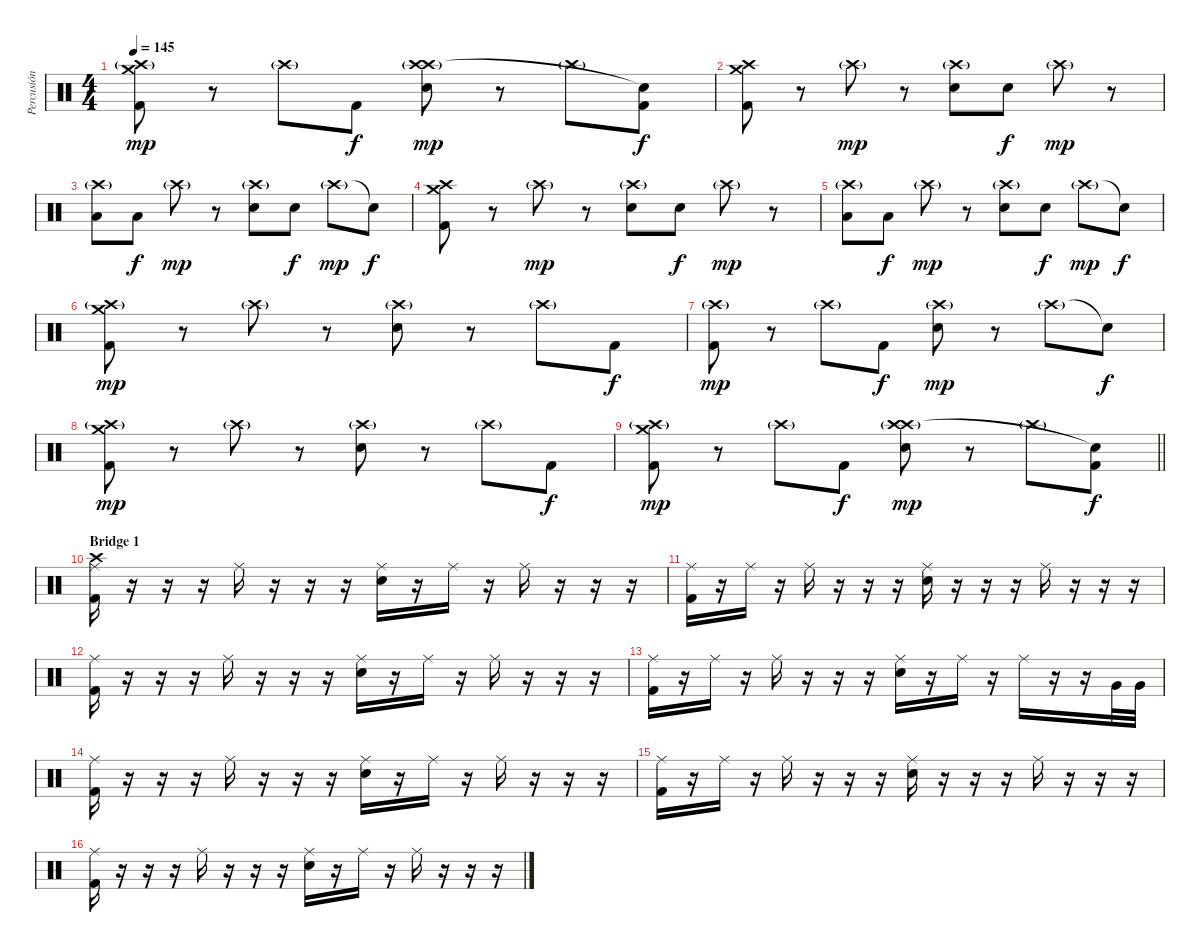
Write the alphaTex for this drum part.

\track ("Percusión" "Percusión") {instrument percussion}
\staff {score}
\articulation defaults
\ts (4 4)
\tempo 145
\clef neutral
\ks c
("Kick (hit) 2" "Crash high (hit)"{g} "Crash medium (hit)").8{dy mp} r.8 "Crash high (hit)"{g}.8 "Kick (hit) 2".8{dy f} ("Electric Snare (hit)" "Crash high (hit)"{g} "Crash high (hit)").8{dy mp} r.8 "Crash high (hit)"{g}.8 ("Kick (hit) 2" "Snare (hit)"{t}).8{dy f} |
("Kick (hit) 2" "Crash high (hit)" "Crash medium (hit)").8 r.8 "Crash high (hit)"{g}.8{dy mp} r.8 ("Electric Snare (hit)" "Crash high (hit)"{g}).8 "Electric Snare (hit)".8{dy f} "Crash high (hit)"{g}.8{dy mp} r.8 |
("Low Tom (hit)" "Crash high (hit)"{g}).8 "Low Tom (hit)".8{dy f} "Crash high (hit)"{g}.8{dy mp} r.8 ("Electric Snare (hit)" "Crash high (hit)"{g}).8 "Electric Snare (hit)".8{dy f} "Crash high (hit)"{g}.8{dy mp} "Snare (hit)"{t}.8{dy f} |
("Kick (hit) 2" "Crash high (hit)" "Crash medium (hit)").8 r.8 "Crash high (hit)"{g}.8{dy mp} r.8 ("Electric Snare (hit)" "Crash high (hit)"{g}).8 "Electric Snare (hit)".8{dy f} "Crash high (hit)"{g}.8{dy mp} r.8 |
("Low Tom (hit)" "Crash high (hit)"{g}).8 "Low Tom (hit)".8{dy f} "Crash high (hit)"{g}.8{dy mp} r.8 ("Electric Snare (hit)" "Crash high (hit)"{g}).8 "Electric Snare (hit)".8{dy f} "Crash high (hit)"{g}.8{dy mp} "Snare (hit)"{t}.8{dy f} |
("Kick (hit) 2" "Crash high (hit)"{g} "Crash medium (hit)").8{dy mp} r.8 "Crash high (hit)"{g}.8 r.8 ("Electric Snare (hit)" "Crash high (hit)"{g}).8 r.8 "Crash high (hit)"{g}.8 "Kick (hit) 2".8{dy f} |
("Kick (hit) 2" "Crash high (hit)"{g}).8{dy mp} r.8 "Crash high (hit)"{g}.8 "Kick (hit) 2".8{dy f} ("Electric Snare (hit)" "Crash high (hit)"{g}).8{dy mp} r.8 "Crash high (hit)"{g}.8 "Snare (hit)"{t}.8{dy f} |
("Kick (hit) 2" "Crash high (hit)"{g} "Crash medium (hit)").8{dy mp} r.8 "Crash high (hit)"{g}.8 r.8 ("Electric Snare (hit)" "Crash high (hit)"{g}).8 r.8 "Crash high (hit)"{g}.8 "Kick (hit) 2".8{dy f} |
\barLineRight lightlight
("Kick (hit) 2" "Crash high (hit)"{g} "Crash medium (hit)").8{dy mp} r.8 "Crash high (hit)"{g}.8 "Kick (hit) 2".8{dy f} ("Electric Snare (hit)" "Crash high (hit)"{g} "Crash high (hit)").8{dy mp} r.8 "Crash high (hit)"{g}.8 ("Kick (hit) 2" "Snare (hit)"{t}).8{dy f} |
\section ("" "Bridge 1")
("Kick (hit) 2" "Ride (middle)" "Crash high (hit)").16 r.16 r.16 r.16 "Ride (middle)".16 r.16 r.16 r.16 ("Electric Snare (hit)" "Ride (middle)").16 r.16 "Ride (middle)".16 r.16 "Ride (middle)".16 r.16 r.16 r.16 |
("Kick (hit) 2" "Ride (middle)").16 r.16 "Ride (middle)".16 r.16 "Ride (middle)".16 r.16 r.16 r.16 ("Electric Snare (hit)" "Ride (middle)").16 r.16 r.16 r.16 "Ride (middle)".16 r.16 r.16 r.16 |
("Kick (hit) 2" "Ride (middle)").16 r.16 r.16 r.16 "Ride (middle)".16 r.16 r.16 r.16 ("Electric Snare (hit)" "Ride (middle)").16 r.16 "Ride (middle)".16 r.16 "Ride (middle)".16 r.16 r.16 r.16 |
("Kick (hit) 2" "Ride (middle)").16 r.16 "Ride (middle)".16 r.16 "Ride (middle)".16 r.16 r.16 r.16 ("Electric Snare (hit)" "Ride (middle)").16 r.16 "Ride (middle)".16 r.16 "Ride (middle)".16 r.16 r.16 "Very Low Tom (hit)".32 "Very Low Tom (hit)".32 |
("Kick (hit) 2" "Ride (middle)").16 r.16 r.16 r.16 "Ride (middle)".16 r.16 r.16 r.16 ("Electric Snare (hit)" "Ride (middle)").16 r.16 "Ride (middle)".16 r.16 "Ride (middle)".16 r.16 r.16 r.16 |
("Kick (hit) 2" "Ride (middle)").16 r.16 "Ride (middle)".16 r.16 "Ride (middle)".16 r.16 r.16 r.16 ("Electric Snare (hit)" "Ride (middle)").16 r.16 r.16 r.16 "Ride (middle)".16 r.16 r.16 r.16 |
("Kick (hit) 2" "Ride (middle)").16 r.16 r.16 r.16 "Ride (middle)".16 r.16 r.16 r.16 ("Electric Snare (hit)" "Ride (middle)").16 r.16 "Ride (middle)".16 r.16 "Ride (middle)".16 r.16 r.16 r.16
